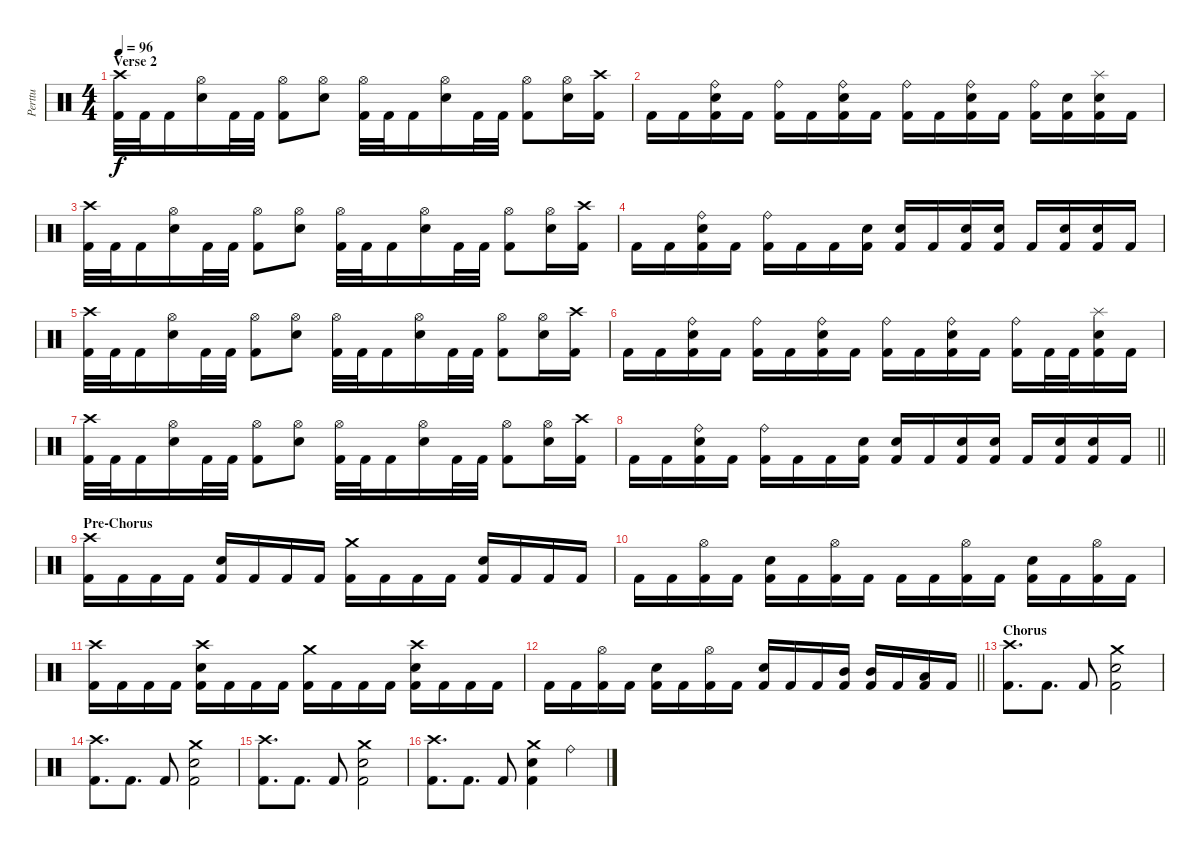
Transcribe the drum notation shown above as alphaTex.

\track ("Perttu" "Perttu") {instrument percussion}
\staff {score}
\articulation defaults
\ts (4 4)
\section ("" "Verse 2")
\tempo 96
\clef neutral
\ks c
("Crash high (hit)" "Kick (hit) 2").32{dy f} "Kick (hit) 2".32 "Kick (hit) 2".16 ("Hi-Hat (open)" "Electric Snare (hit)").16 "Kick (hit) 2".32 "Kick (hit) 2".32 ("Hi-Hat (open)" "Kick (hit) 2").8 ("Hi-Hat (open)" "Electric Snare (hit)").8 ("Hi-Hat (open)" "Kick (hit) 2").32 "Kick (hit) 2".32 "Kick (hit) 2".16 ("Hi-Hat (open)" "Electric Snare (hit)").16 "Kick (hit) 2".32 "Kick (hit) 2".32 ("Hi-Hat (open)" "Kick (hit) 2").8 ("Hi-Hat (open)" "Electric Snare (hit)").16 ("Crash high (hit)" "Kick (hit) 2").16 |
"Kick (hit) 2".16 "Kick (hit) 2".16 ("Ride (bell)" "Electric Snare (hit)" "Kick (hit) 2").16 "Kick (hit) 2".16 ("Ride (bell)" "Kick (hit) 2").16 "Kick (hit) 2".16 ("Ride (bell)" "Electric Snare (hit)" "Kick (hit) 2").16 "Kick (hit) 2".16 ("Ride (bell)" "Kick (hit) 2").16 "Kick (hit) 2".16 ("Ride (bell)" "Electric Snare (hit)" "Kick (hit) 2").16 "Kick (hit) 2".16 ("Ride (bell)" "Kick (hit) 2").16 ("Electric Snare (hit)" "Kick (hit) 2").16 ("Splash (hit)" "Electric Snare (hit)" "Kick (hit) 2").16 "Kick (hit) 2".16 |
("Crash high (hit)" "Kick (hit) 2").32 "Kick (hit) 2".32 "Kick (hit) 2".16 ("Hi-Hat (open)" "Electric Snare (hit)").16 "Kick (hit) 2".32 "Kick (hit) 2".32 ("Hi-Hat (open)" "Kick (hit) 2").8 ("Hi-Hat (open)" "Electric Snare (hit)").8 ("Hi-Hat (open)" "Kick (hit) 2").32 "Kick (hit) 2".32 "Kick (hit) 2".16 ("Hi-Hat (open)" "Electric Snare (hit)").16 "Kick (hit) 2".32 "Kick (hit) 2".32 ("Hi-Hat (open)" "Kick (hit) 2").8 ("Hi-Hat (open)" "Electric Snare (hit)").16 ("Crash high (hit)" "Kick (hit) 2").16 |
"Kick (hit) 2".16 "Kick (hit) 2".16 ("Ride (bell)" "Electric Snare (hit)" "Kick (hit) 2").16 "Kick (hit) 2".16 ("Ride (bell)" "Kick (hit) 2").16 "Kick (hit) 2".16 "Kick (hit) 2".16 ("Electric Snare (hit)" "Kick (hit) 2").16 ("Electric Snare (hit)" "Kick (hit) 2").16 "Kick (hit) 2".16 ("Electric Snare (hit)" "Kick (hit) 2").16 ("Electric Snare (hit)" "Kick (hit) 2").16 "Kick (hit) 2".16 ("Electric Snare (hit)" "Kick (hit) 2").16 ("Electric Snare (hit)" "Kick (hit) 2").16 "Kick (hit) 2".16 |
("Crash high (hit)" "Kick (hit) 2").32 "Kick (hit) 2".32 "Kick (hit) 2".16 ("Hi-Hat (open)" "Electric Snare (hit)").16 "Kick (hit) 2".32 "Kick (hit) 2".32 ("Hi-Hat (open)" "Kick (hit) 2").8 ("Hi-Hat (open)" "Electric Snare (hit)").8 ("Hi-Hat (open)" "Kick (hit) 2").32 "Kick (hit) 2".32 "Kick (hit) 2".16 ("Hi-Hat (open)" "Electric Snare (hit)").16 "Kick (hit) 2".32 "Kick (hit) 2".32 ("Hi-Hat (open)" "Kick (hit) 2").8 ("Hi-Hat (open)" "Electric Snare (hit)").16 ("Crash high (hit)" "Kick (hit) 2").16 |
"Kick (hit) 2".16 "Kick (hit) 2".16 ("Ride (bell)" "Electric Snare (hit)" "Kick (hit) 2").16 "Kick (hit) 2".16 ("Ride (bell)" "Kick (hit) 2").16 "Kick (hit) 2".16 ("Ride (bell)" "Electric Snare (hit)" "Kick (hit) 2").16 "Kick (hit) 2".16 ("Ride (bell)" "Kick (hit) 2").16 "Kick (hit) 2".16 ("Ride (bell)" "Electric Snare (hit)" "Kick (hit) 2").16 "Kick (hit) 2".16 ("Ride (bell)" "Kick (hit) 2").16 "Kick (hit) 2".32 "Kick (hit) 2".32 ("Splash (hit)" "Electric Snare (hit)" "Kick (hit) 2").16 "Kick (hit) 2".16 |
("Crash high (hit)" "Kick (hit) 2").32 "Kick (hit) 2".32 "Kick (hit) 2".16 ("Hi-Hat (open)" "Electric Snare (hit)").16 "Kick (hit) 2".32 "Kick (hit) 2".32 ("Hi-Hat (open)" "Kick (hit) 2").8 ("Hi-Hat (open)" "Electric Snare (hit)").8 ("Hi-Hat (open)" "Kick (hit) 2").32 "Kick (hit) 2".32 "Kick (hit) 2".16 ("Hi-Hat (open)" "Electric Snare (hit)").16 "Kick (hit) 2".32 "Kick (hit) 2".32 ("Hi-Hat (open)" "Kick (hit) 2").8 ("Hi-Hat (open)" "Electric Snare (hit)").16 ("Crash high (hit)" "Kick (hit) 2").16 |
\barLineRight lightlight "Kick (hit) 2".16 "Kick (hit) 2".16
("Ride (bell)" "Electric Snare (hit)" "Kick (hit) 2").16 "Kick (hit) 2".16 ("Ride (bell)" "Kick (hit) 2").16 "Kick (hit) 2".16 "Kick (hit) 2".16 ("Electric Snare (hit)" "Kick (hit) 2").16 ("Electric Snare (hit)" "Kick (hit) 2").16 "Kick (hit) 2".16 ("Electric Snare (hit)" "Kick (hit) 2").16 ("Electric Snare (hit)" "Kick (hit) 2").16 "Kick (hit) 2".16 ("Electric Snare (hit)" "Kick (hit) 2").16 ("Electric Snare (hit)" "Kick (hit) 2").16 "Kick (hit) 2".16 |
\section ("" "Pre-Chorus")
("Crash high (hit)" "Kick (hit) 2").16 "Kick (hit) 2".16 "Kick (hit) 2".16 "Kick (hit) 2".16 ("Electric Snare (hit)" "Kick (hit) 2").16 "Kick (hit) 2".16 "Kick (hit) 2".16 "Kick (hit) 2".16 ("Crash medium (hit)" "Kick (hit) 2").16 "Kick (hit) 2".16 "Kick (hit) 2".16 "Kick (hit) 2".16 ("Electric Snare (hit)" "Kick (hit) 2").16 "Kick (hit) 2".16 "Kick (hit) 2".16 "Kick (hit) 2".16 |
"Kick (hit) 2".16 "Kick (hit) 2".16 ("Hi-Hat (open)" "Kick (hit) 2").16 "Kick (hit) 2".16 ("Electric Snare (hit)" "Kick (hit) 2").16 "Kick (hit) 2".16 ("Hi-Hat (open)" "Kick (hit) 2").16 "Kick (hit) 2".16 "Kick (hit) 2".16 "Kick (hit) 2".16 ("Hi-Hat (open)" "Kick (hit) 2").16 "Kick (hit) 2".16 ("Electric Snare (hit)" "Kick (hit) 2").16 "Kick (hit) 2".16 ("Hi-Hat (open)" "Kick (hit) 2").16 "Kick (hit) 2".16 |
("Crash high (hit)" "Kick (hit) 2").16 "Kick (hit) 2".16 "Kick (hit) 2".16 "Kick (hit) 2".16 ("Crash high (hit)" "Electric Snare (hit)" "Kick (hit) 2").16 "Kick (hit) 2".16 "Kick (hit) 2".16 "Kick (hit) 2".16 ("Crash medium (hit)" "Kick (hit) 2").16 "Kick (hit) 2".16 "Kick (hit) 2".16 "Kick (hit) 2".16 ("Crash high (hit)" "Electric Snare (hit)" "Kick (hit) 2").16 "Kick (hit) 2".16 "Kick (hit) 2".16 "Kick (hit) 2".16 |
\barLineRight lightlight "Kick (hit) 2".16 "Kick (hit) 2".16
("Hi-Hat (open)" "Kick (hit) 2").16 "Kick (hit) 2".16 ("Electric Snare (hit)" "Kick (hit) 2").16 "Kick (hit) 2".16 ("Hi-Hat (open)" "Kick (hit) 2").16 "Kick (hit) 2".16 ("Electric Snare (hit)" "Kick (hit) 2").16 "Kick (hit) 2".16 "Kick (hit) 2".16 ("Mid Tom (hit)" "Kick (hit) 2").16 ("Mid Tom (hit)" "Kick (hit) 2").16 "Kick (hit) 2".16 ("Low Tom (hit)" "Kick (hit) 2").16 "Kick (hit) 2".16 |
\section ("" "Chorus")
("Crash high (hit)" "Kick (hit) 2").8{d} "Kick (hit) 2".8{d} "Kick (hit) 2".8 ("Crash medium (hit)" "Electric Snare (hit)" "Kick (hit) 2").2 |
("Crash high (hit)" "Kick (hit) 2").8{d} "Kick (hit) 2".8{d} "Kick (hit) 2".8 ("Crash medium (hit)" "Electric Snare (hit)" "Kick (hit) 2").2 |
("Crash high (hit)" "Kick (hit) 2").8{d} "Kick (hit) 2".8{d} "Kick (hit) 2".8 ("Crash medium (hit)" "Electric Snare (hit)" "Kick (hit) 2").2 |
("Crash high (hit)" "Kick (hit) 2").8{d} "Kick (hit) 2".8{d} "Kick (hit) 2".8 ("Crash medium (hit)" "Electric Snare (hit)" "Kick (hit) 2").4 "Ride (bell)".4
